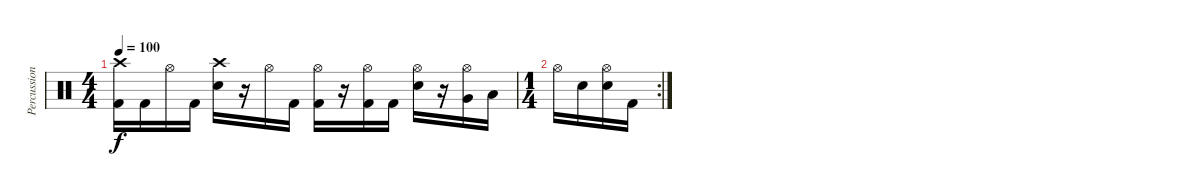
\track ("Percussion" "Percussion") {instrument percussion}
\staff {score}
\articulation defaults
\ts (4 4)
\tempo 100
\clef neutral
\ks c
("Crash high (hit)" "Kick (hit) 2").16{dy f} "Kick (hit) 2".16 "Hi-Hat (open)".16 "Kick (hit) 2".16 ("Crash high (hit)" "Electric Snare (hit)").16 r.16 "Hi-Hat (open)".16 "Kick (hit) 2".16 ("Hi-Hat (open)" "Kick (hit) 2").16 r.16 ("Hi-Hat (open)" "Kick (hit) 2").16 "Kick (hit) 2".16 ("Hi-Hat (open)" "Electric Snare (hit)").16 r.16 ("Hi-Hat (open)" "Very Low Tom (hit)").16 "Low Floor Tom (hit)".16 |
\rc 2
\ts (1 4)
"Hi-Hat (open)".16 "Electric Snare (hit)".16 ("Hi-Hat (open)" "Electric Snare (hit)").16 "Kick (hit) 2".16
